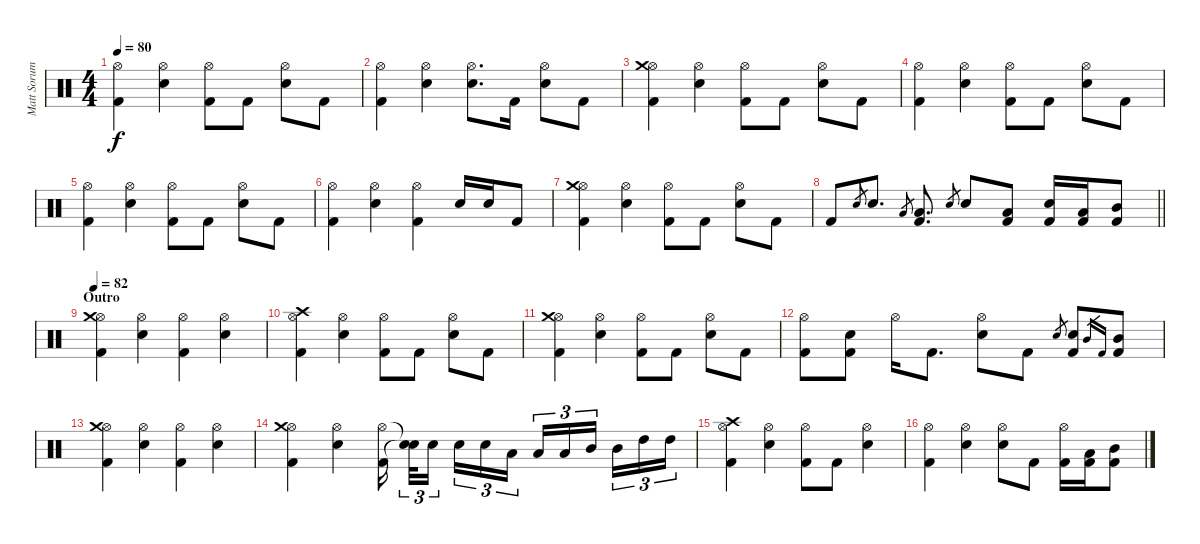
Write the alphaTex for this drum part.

\track ("Matt Sorum" "Matt Sorum") {instrument percussion}
\staff {score}
\articulation defaults
\ts (4 4)
\tempo 80
\clef neutral
\ks c
("Hi-Hat (open)" "Kick (hit) 2").4{dy f} ("Electric Snare (hit)" "Hi-Hat (open)").4 ("Hi-Hat (open)" "Kick (hit) 2").8 "Kick (hit) 2".8 ("Electric Snare (hit)" "Hi-Hat (open)").8 "Kick (hit) 2".8 |
("Hi-Hat (open)" "Kick (hit) 2").4 ("Electric Snare (hit)" "Hi-Hat (open)").4 ("Electric Snare (hit)" "Hi-Hat (open)").8{d} "Kick (hit) 2".16 ("Electric Snare (hit)" "Hi-Hat (open)").8 "Kick (hit) 2".8 |
("Hi-Hat (open)" "Kick (hit) 2" "Crash medium (hit)").4 ("Electric Snare (hit)" "Hi-Hat (open)").4 ("Hi-Hat (open)" "Kick (hit) 2").8 "Kick (hit) 2".8 ("Electric Snare (hit)" "Hi-Hat (open)").8 "Kick (hit) 2".8 |
("Hi-Hat (open)" "Kick (hit) 2").4 ("Electric Snare (hit)" "Hi-Hat (open)").4 ("Hi-Hat (open)" "Kick (hit) 2").8 "Kick (hit) 2".8 ("Electric Snare (hit)" "Hi-Hat (open)").8 "Kick (hit) 2".8 |
("Hi-Hat (open)" "Kick (hit) 2").4 ("Electric Snare (hit)" "Hi-Hat (open)").4 ("Hi-Hat (open)" "Kick (hit) 2").8 "Kick (hit) 2".8 ("Electric Snare (hit)" "Hi-Hat (open)").8 "Kick (hit) 2".8 |
("Hi-Hat (open)" "Kick (hit) 2").4 ("Electric Snare (hit)" "Hi-Hat (open)").4 ("Hi-Hat (open)" "Kick (hit) 2").4 "Electric Snare (hit)".16 "Electric Snare (hit)".16 "Kick (hit) 2".8 |
("Hi-Hat (open)" "Kick (hit) 2" "Crash medium (hit)").4 ("Electric Snare (hit)" "Hi-Hat (open)").4 ("Hi-Hat (open)" "Kick (hit) 2").8 "Kick (hit) 2".8 ("Electric Snare (hit)" "Hi-Hat (open)").8 "Kick (hit) 2".8 |
\barLineRight lightlight "Kick (hit) 2".8 "Electric Snare (hit)".8{gr} "Electric Snare (hit)".8{d} "Low Tom (hit)".8{gr}
("Low Tom (hit)" "Kick (hit) 2").8{d} "Electric Snare (hit)".8{gr} "Electric Snare (hit)".8 ("Low Tom (hit)" "Kick (hit) 2").8 ("Electric Snare (hit)" "Kick (hit) 2").16 ("Low Tom (hit)" "Kick (hit) 2").16 ("Mid Tom (hit)" "Kick (hit) 2").8 |
\section ("" "Outro")
\tempo 82
("Hi-Hat (open)" "Kick (hit) 2" "Crash medium (hit)").4 ("Electric Snare (hit)" "Hi-Hat (open)").4 ("Hi-Hat (open)" "Kick (hit) 2").4 ("Electric Snare (hit)" "Hi-Hat (open)").4 |
("Hi-Hat (open)" "Kick (hit) 2" "Crash high (hit)").4 ("Electric Snare (hit)" "Hi-Hat (open)").4 ("Hi-Hat (open)" "Kick (hit) 2").8 "Kick (hit) 2".8 ("Electric Snare (hit)" "Hi-Hat (open)").8 "Kick (hit) 2".8 |
("Hi-Hat (open)" "Kick (hit) 2" "Crash medium (hit)").4 ("Electric Snare (hit)" "Hi-Hat (open)").4 ("Hi-Hat (open)" "Kick (hit) 2").8 "Kick (hit) 2".8 ("Electric Snare (hit)" "Hi-Hat (open)").8 "Kick (hit) 2".8 |
("Hi-Hat (open)" "Kick (hit) 2").8 ("Electric Snare (hit)" "Kick (hit) 2").8 "Hi-Hat (open)".16 "Kick (hit) 2".8{d} ("Electric Snare (hit)" "Hi-Hat (open)").8 "Kick (hit) 2".8 "Electric Snare (hit)".8{gr} ("Electric Snare (hit)" "Kick (hit) 2").8 "Mid Tom (hit)".16{gr} "Kick (hit) 2".16{gr} ("Mid Tom (hit)" "Kick (hit) 2").8 |
("Hi-Hat (open)" "Kick (hit) 2" "Crash medium (hit)").4 ("Electric Snare (hit)" "Hi-Hat (open)").4 ("Hi-Hat (open)" "Kick (hit) 2").4 ("Electric Snare (hit)" "Hi-Hat (open)").4 |
("Hi-Hat (open)" "Kick (hit) 2" "Crash medium (hit)").4 ("Electric Snare (hit)" "Hi-Hat (open)").4 ("Hi-Hat (open)" "Kick (hit) 2").16{beam splitsecondary} ("Snare (hit)"{t} "Snare (hit)"{t}).32{tu (3 2)} "Electric Snare (hit)".16{tu (3 2) beam splitsecondary} "Electric Snare (hit)".16{tu (3 2)} "Electric Snare (hit)".16{tu (3 2)} "Low Tom (hit)".16{tu (3 2)} "Low Tom (hit)".16{tu (3 2)} "Low Tom (hit)".16{tu (3 2)} "Mid Tom (hit)".16{tu (3 2) beam splitsecondary} "Mid Tom (hit)".16{tu (3 2)} "High Tom (hit)".16{tu (3 2)} "High Tom (hit)".16{tu (3 2)} |
("Hi-Hat (open)" "Kick (hit) 2" "Crash high (hit)").4 ("Electric Snare (hit)" "Hi-Hat (open)").4 ("Hi-Hat (open)" "Kick (hit) 2").8 "Kick (hit) 2".8 ("Electric Snare (hit)" "Hi-Hat (open)").4 |
("Hi-Hat (open)" "Kick (hit) 2").4 ("Electric Snare (hit)" "Hi-Hat (open)").4 ("Electric Snare (hit)" "Hi-Hat (open)").8 "Kick (hit) 2".8 ("Hi-Hat (open)" "Kick (hit) 2").16 ("Low Tom (hit)" "Kick (hit) 2").16 ("Mid Tom (hit)" "Kick (hit) 2").8
